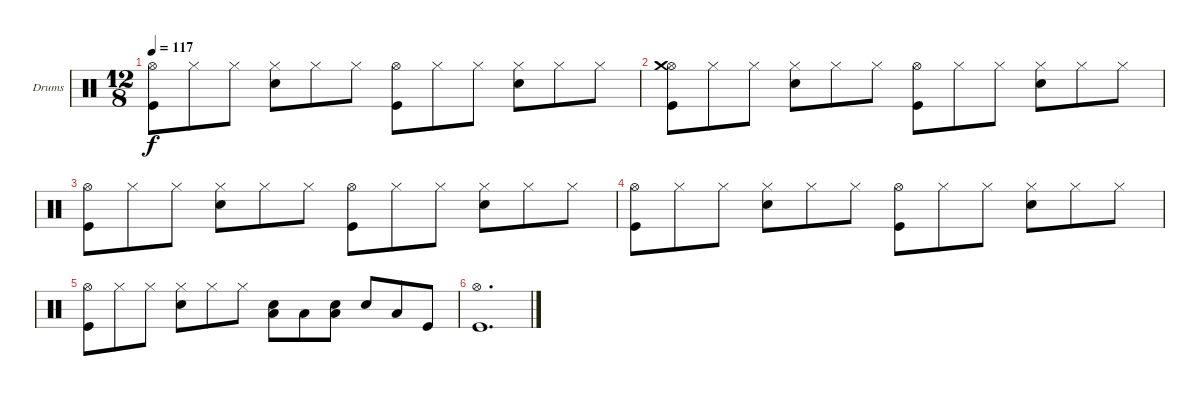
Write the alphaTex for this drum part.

\defaultSystemsLayout 4
\bracketExtendMode groupsimilarinstruments
\firstSystemTrackNameOrientation horizontal
\otherSystemsTrackNameOrientation horizontal
\track ("Drumkit" "Drums") {instrument percussion}
\staff {score}
\articulation defaults
\ts (12 8)
\tempo 117
\clef neutral
\ks c
("Kick (hit)" "Hi-Hat (open)").8{dy f} "Hi-Hat (closed)".8 "Hi-Hat (closed)".8 ("Snare (hit) 2" "Hi-Hat (closed)").8 "Hi-Hat (closed)".8 "Hi-Hat (closed)".8 ("Kick (hit)" "Hi-Hat (open)").8 "Hi-Hat (closed)".8 "Hi-Hat (closed)".8 ("Snare (hit) 2" "Hi-Hat (closed)").8 "Hi-Hat (closed)".8 "Hi-Hat (closed)".8 |
("Kick (hit)" "Hi-Hat (open)" "Crash medium (hit)").8 "Hi-Hat (closed)".8 "Hi-Hat (closed)".8 ("Snare (hit) 2" "Hi-Hat (closed)").8 "Hi-Hat (closed)".8 "Hi-Hat (closed)".8 ("Kick (hit)" "Hi-Hat (open)").8 "Hi-Hat (closed)".8 "Hi-Hat (closed)".8 ("Snare (hit) 2" "Hi-Hat (closed)").8 "Hi-Hat (closed)".8 "Hi-Hat (closed)".8 |
("Kick (hit)" "Hi-Hat (open)").8 "Hi-Hat (closed)".8 "Hi-Hat (closed)".8 ("Snare (hit) 2" "Hi-Hat (closed)").8 "Hi-Hat (closed)".8 "Hi-Hat (closed)".8 ("Kick (hit)" "Hi-Hat (open)").8 "Hi-Hat (closed)".8 "Hi-Hat (closed)".8 ("Snare (hit) 2" "Hi-Hat (closed)").8 "Hi-Hat (closed)".8 "Hi-Hat (closed)".8 |
("Kick (hit)" "Hi-Hat (open)").8 "Hi-Hat (closed)".8 "Hi-Hat (closed)".8 ("Snare (hit) 2" "Hi-Hat (closed)").8 "Hi-Hat (closed)".8 "Hi-Hat (closed)".8 ("Kick (hit)" "Hi-Hat (open)").8 "Hi-Hat (closed)".8 "Hi-Hat (closed)".8 ("Snare (hit) 2" "Hi-Hat (closed)").8 "Hi-Hat (closed)".8 "Hi-Hat (closed)".8 |
("Kick (hit)" "Hi-Hat (open)").8 "Hi-Hat (closed)".8 "Hi-Hat (closed)".8 ("Snare (hit) 2" "Hi-Hat (closed)").8 "Hi-Hat (closed)".8 "Hi-Hat (closed)".8 ("Low Tom (hit)" "Snare (hit) 2").8 "Low Tom (hit)".8 ("Low Tom (hit)" "Snare (hit) 2").8 "Snare (hit) 2".8 "Low Tom (hit)".8 "Kick (hit)".8 |
("Kick (hit)" "Hi-Hat (open)").1{d}
